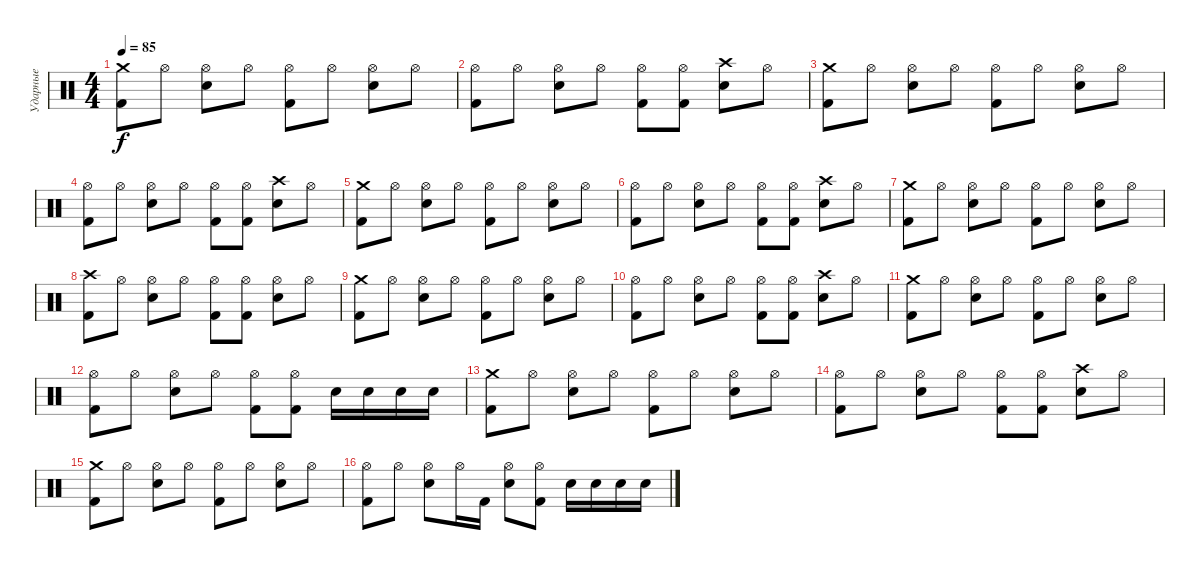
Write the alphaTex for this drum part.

\track ("Ударные" "Ударные") {instrument percussion}
\staff {score}
\articulation defaults
\ts (4 4)
\tempo 85
\clef neutral
\ks c
("Crash medium (hit)" "Kick (hit) 2").8{dy f} "Hi-Hat (open)".8 ("Hi-Hat (open)" "Electric Snare (hit)").8 "Hi-Hat (open)".8 ("Hi-Hat (open)" "Kick (hit) 2").8 "Hi-Hat (open)".8 ("Hi-Hat (open)" "Electric Snare (hit)").8 "Hi-Hat (open)".8 |
("Hi-Hat (open)" "Kick (hit) 2").8 "Hi-Hat (open)".8 ("Hi-Hat (open)" "Electric Snare (hit)").8 "Hi-Hat (open)".8 ("Hi-Hat (open)" "Kick (hit) 2").8 ("Hi-Hat (open)" "Kick (hit) 2").8 ("Crash high (hit)" "Electric Snare (hit)").8 "Hi-Hat (open)".8 |
("Crash medium (hit)" "Kick (hit) 2").8 "Hi-Hat (open)".8 ("Hi-Hat (open)" "Electric Snare (hit)").8 "Hi-Hat (open)".8 ("Hi-Hat (open)" "Kick (hit) 2").8 "Hi-Hat (open)".8 ("Hi-Hat (open)" "Electric Snare (hit)").8 "Hi-Hat (open)".8 |
("Hi-Hat (open)" "Kick (hit) 2").8 "Hi-Hat (open)".8 ("Hi-Hat (open)" "Electric Snare (hit)").8 "Hi-Hat (open)".8 ("Hi-Hat (open)" "Kick (hit) 2").8 ("Hi-Hat (open)" "Kick (hit) 2").8 ("Crash high (hit)" "Electric Snare (hit)").8 "Hi-Hat (open)".8 |
("Crash medium (hit)" "Kick (hit) 2").8 "Hi-Hat (open)".8 ("Hi-Hat (open)" "Electric Snare (hit)").8 "Hi-Hat (open)".8 ("Hi-Hat (open)" "Kick (hit) 2").8 "Hi-Hat (open)".8 ("Hi-Hat (open)" "Electric Snare (hit)").8 "Hi-Hat (open)".8 |
("Hi-Hat (open)" "Kick (hit) 2").8 "Hi-Hat (open)".8 ("Hi-Hat (open)" "Electric Snare (hit)").8 "Hi-Hat (open)".8 ("Hi-Hat (open)" "Kick (hit) 2").8 ("Hi-Hat (open)" "Kick (hit) 2").8 ("Crash high (hit)" "Electric Snare (hit)").8 "Hi-Hat (open)".8 |
("Crash medium (hit)" "Kick (hit) 2").8 "Hi-Hat (open)".8 ("Hi-Hat (open)" "Electric Snare (hit)").8 "Hi-Hat (open)".8 ("Hi-Hat (open)" "Kick (hit) 2").8 "Hi-Hat (open)".8 ("Hi-Hat (open)" "Electric Snare (hit)").8 "Hi-Hat (open)".8 |
("Crash high (hit)" "Kick (hit) 2").8 "Hi-Hat (open)".8 ("Hi-Hat (open)" "Electric Snare (hit)").8 "Hi-Hat (open)".8 ("Hi-Hat (open)" "Kick (hit) 2").8 ("Hi-Hat (open)" "Kick (hit) 2").8 ("Hi-Hat (open)" "Electric Snare (hit)").8 "Hi-Hat (open)".8 |
("Crash medium (hit)" "Kick (hit) 2").8 "Hi-Hat (open)".8 ("Hi-Hat (open)" "Electric Snare (hit)").8 "Hi-Hat (open)".8 ("Hi-Hat (open)" "Kick (hit) 2").8 "Hi-Hat (open)".8 ("Hi-Hat (open)" "Electric Snare (hit)").8 "Hi-Hat (open)".8 |
("Hi-Hat (open)" "Kick (hit) 2").8 "Hi-Hat (open)".8 ("Hi-Hat (open)" "Electric Snare (hit)").8 "Hi-Hat (open)".8 ("Hi-Hat (open)" "Kick (hit) 2").8 ("Hi-Hat (open)" "Kick (hit) 2").8 ("Crash high (hit)" "Electric Snare (hit)").8 "Hi-Hat (open)".8 |
("Crash medium (hit)" "Kick (hit) 2").8 "Hi-Hat (open)".8 ("Hi-Hat (open)" "Electric Snare (hit)").8 "Hi-Hat (open)".8 ("Hi-Hat (open)" "Kick (hit) 2").8 "Hi-Hat (open)".8 ("Hi-Hat (open)" "Electric Snare (hit)").8 "Hi-Hat (open)".8 |
("Hi-Hat (open)" "Kick (hit) 2").8 "Hi-Hat (open)".8 ("Hi-Hat (open)" "Electric Snare (hit)").8 "Hi-Hat (open)".8 ("Hi-Hat (open)" "Kick (hit) 2").8 ("Hi-Hat (open)" "Kick (hit) 2").8 "Electric Snare (hit)".16 "Electric Snare (hit)".16 "Electric Snare (hit)".16 "Electric Snare (hit)".16 |
("Crash medium (hit)" "Kick (hit) 2").8 "Hi-Hat (open)".8 ("Hi-Hat (open)" "Electric Snare (hit)").8 "Hi-Hat (open)".8 ("Hi-Hat (open)" "Kick (hit) 2").8 "Hi-Hat (open)".8 ("Hi-Hat (open)" "Electric Snare (hit)").8 "Hi-Hat (open)".8 |
("Hi-Hat (open)" "Kick (hit) 2").8 "Hi-Hat (open)".8 ("Hi-Hat (open)" "Electric Snare (hit)").8 "Hi-Hat (open)".8 ("Hi-Hat (open)" "Kick (hit) 2").8 ("Hi-Hat (open)" "Kick (hit) 2").8 ("Crash high (hit)" "Electric Snare (hit)").8 "Hi-Hat (open)".8 |
("Crash medium (hit)" "Kick (hit) 2").8 "Hi-Hat (open)".8 ("Hi-Hat (open)" "Electric Snare (hit)").8 "Hi-Hat (open)".8 ("Hi-Hat (open)" "Kick (hit) 2").8 "Hi-Hat (open)".8 ("Hi-Hat (open)" "Electric Snare (hit)").8 "Hi-Hat (open)".8 |
("Hi-Hat (open)" "Kick (hit) 2").8 "Hi-Hat (open)".8 ("Hi-Hat (open)" "Electric Snare (hit)").8 "Hi-Hat (open)".16 "Kick (hit) 2".16 ("Hi-Hat (open)" "Electric Snare (hit)").8 ("Hi-Hat (open)" "Kick (hit) 2").8 "Electric Snare (hit)".16 "Electric Snare (hit)".16 "Electric Snare (hit)".16 "Electric Snare (hit)".16
